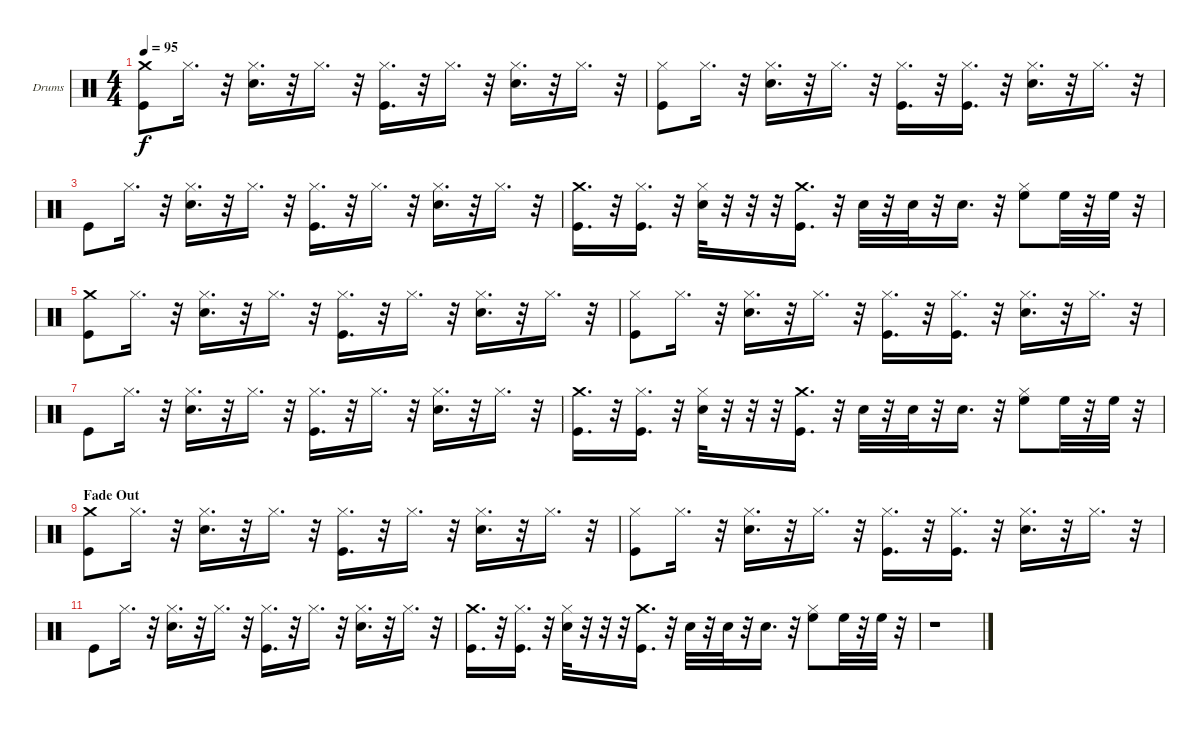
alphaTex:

\bracketExtendMode nobrackets
\firstSystemTrackNameOrientation horizontal
\otherSystemsTrackNameOrientation horizontal
\defaultBarNumberDisplay FirstOfSystem
\track ("Drumkit" "Drums") {instrument percussion}
\staff {score}
\articulation defaults
\ts (4 4)
\tempo 95
\clef neutral
\scale
0.5
\ks c
("Kick (hit)" "Crash medium (hit)").8{dy f} "Hi-Hat (closed)".16{d} r.32 ("Hi-Hat (closed)" "Snare (hit) 2").16{d} r.32 "Hi-Hat (closed)".16{d} r.32 ("Hi-Hat (closed)" "Kick (hit)").16{d} r.32 "Hi-Hat (closed)".16{d} r.32 ("Hi-Hat (closed)" "Snare (hit) 2").16{d} r.32 "Hi-Hat (closed)".16{d} r.32 |
\scale
0.5 ("Hi-Hat (closed)" "Kick (hit)").8 "Hi-Hat (closed)".16{d} r.32 ("Hi-Hat (closed)" "Snare (hit) 2").16{d} r.32 "Hi-Hat (closed)".16{d} r.32 ("Hi-Hat (closed)" "Kick (hit)").16{d} r.32 ("Hi-Hat (closed)" "Kick (hit)").16{d} r.32 ("Hi-Hat (closed)" "Snare (hit) 2").16{d} r.32 "Hi-Hat (closed)".16{d} r.32 |
\scale
0.462094 "Kick (hit)".8 "Hi-Hat (closed)".16{d} r.32 ("Hi-Hat (closed)" "Snare (hit) 2").16{d} r.32 "Hi-Hat (closed)".16{d} r.32 ("Hi-Hat (closed)" "Kick (hit)").16{d} r.32 "Hi-Hat (closed)".16{d} r.32 ("Hi-Hat (closed)" "Snare (hit) 2").16{d} r.32 "Hi-Hat (closed)".16{d} r.32 |
\scale
0.537906 ("Kick (hit)" "Crash medium (hit)").16{d} r.32 ("Kick (hit)" "Hi-Hat (closed)").16{d} r.32 ("Hi-Hat (closed)" "Snare (hit) 2").32 r.32 r.32 r.32 ("Kick (hit)" "Crash medium (hit)").16{d} r.32 "Snare (hit) 2".32 r.32 "Snare (hit) 2".32 r.32 "Snare (hit) 2".16{d} r.32 ("High Floor Tom (hit)" "Hi-Hat (closed)").8 "High Floor Tom (hit)".32 r.32 "High Floor Tom (hit)".32 r.32 |
\scale
0.5 ("Kick (hit)" "Crash medium (hit)").8 "Hi-Hat (closed)".16{d} r.32 ("Hi-Hat (closed)" "Snare (hit) 2").16{d} r.32 "Hi-Hat (closed)".16{d} r.32 ("Hi-Hat (closed)" "Kick (hit)").16{d} r.32 "Hi-Hat (closed)".16{d} r.32 ("Hi-Hat (closed)" "Snare (hit) 2").16{d} r.32 "Hi-Hat (closed)".16{d} r.32 |
\scale
0.5 ("Hi-Hat (closed)" "Kick (hit)").8 "Hi-Hat (closed)".16{d} r.32 ("Hi-Hat (closed)" "Snare (hit) 2").16{d} r.32 "Hi-Hat (closed)".16{d} r.32 ("Hi-Hat (closed)" "Kick (hit)").16{d} r.32 ("Hi-Hat (closed)" "Kick (hit)").16{d} r.32 ("Hi-Hat (closed)" "Snare (hit) 2").16{d} r.32 "Hi-Hat (closed)".16{d} r.32 |
\scale
0.462094 "Kick (hit)".8 "Hi-Hat (closed)".16{d} r.32 ("Hi-Hat (closed)" "Snare (hit) 2").16{d} r.32 "Hi-Hat (closed)".16{d} r.32 ("Hi-Hat (closed)" "Kick (hit)").16{d} r.32 "Hi-Hat (closed)".16{d} r.32 ("Hi-Hat (closed)" "Snare (hit) 2").16{d} r.32 "Hi-Hat (closed)".16{d} r.32 |
\scale
0.537906 ("Kick (hit)" "Crash medium (hit)").16{d} r.32 ("Kick (hit)" "Hi-Hat (closed)").16{d} r.32 ("Hi-Hat (closed)" "Snare (hit) 2").32 r.32 r.32 r.32 ("Kick (hit)" "Crash medium (hit)").16{d} r.32 "Snare (hit) 2".32 r.32 "Snare (hit) 2".32 r.32 "Snare (hit) 2".16{d} r.32 ("High Floor Tom (hit)" "Hi-Hat (closed)").8 "High Floor Tom (hit)".32 r.32 "High Floor Tom (hit)".32 r.32 |
\section ("" "Fade Out")
\scale
0.5 ("Kick (hit)" "Crash medium (hit)").8 "Hi-Hat (closed)".16{d} r.32 ("Hi-Hat (closed)" "Snare (hit) 2").16{d} r.32 "Hi-Hat (closed)".16{d} r.32 ("Hi-Hat (closed)" "Kick (hit)").16{d} r.32 "Hi-Hat (closed)".16{d} r.32 ("Hi-Hat (closed)" "Snare (hit) 2").16{d} r.32 "Hi-Hat (closed)".16{d} r.32 |
\scale
0.5 ("Hi-Hat (closed)" "Kick (hit)").8 "Hi-Hat (closed)".16{d} r.32 ("Hi-Hat (closed)" "Snare (hit) 2").16{d} r.32 "Hi-Hat (closed)".16{d} r.32 ("Hi-Hat (closed)" "Kick (hit)").16{d} r.32 ("Hi-Hat (closed)" "Kick (hit)").16{d} r.32 ("Hi-Hat (closed)" "Snare (hit) 2").16{d} r.32 "Hi-Hat (closed)".16{d} r.32 |
\scale
0.462094 "Kick (hit)".8 "Hi-Hat (closed)".16{d} r.32 ("Hi-Hat (closed)" "Snare (hit) 2").16{d} r.32 "Hi-Hat (closed)".16{d} r.32 ("Hi-Hat (closed)" "Kick (hit)").16{d} r.32 "Hi-Hat (closed)".16{d} r.32 ("Hi-Hat (closed)" "Snare (hit) 2").16{d} r.32 "Hi-Hat (closed)".16{d} r.32 |
\scale
0.537906 ("Kick (hit)" "Crash medium (hit)").16{d} r.32 ("Kick (hit)" "Hi-Hat (closed)").16{d} r.32 ("Hi-Hat (closed)" "Snare (hit) 2").32 r.32 r.32 r.32 ("Kick (hit)" "Crash medium (hit)").16{d} r.32 "Snare (hit) 2".32 r.32 "Snare (hit) 2".32 r.32 "Snare (hit) 2".16{d} r.32 ("High Floor Tom (hit)" "Hi-Hat (closed)").8 "High Floor Tom (hit)".32 r.32 "High Floor Tom (hit)".32 r.32 |
\scale
0.5 r.1
